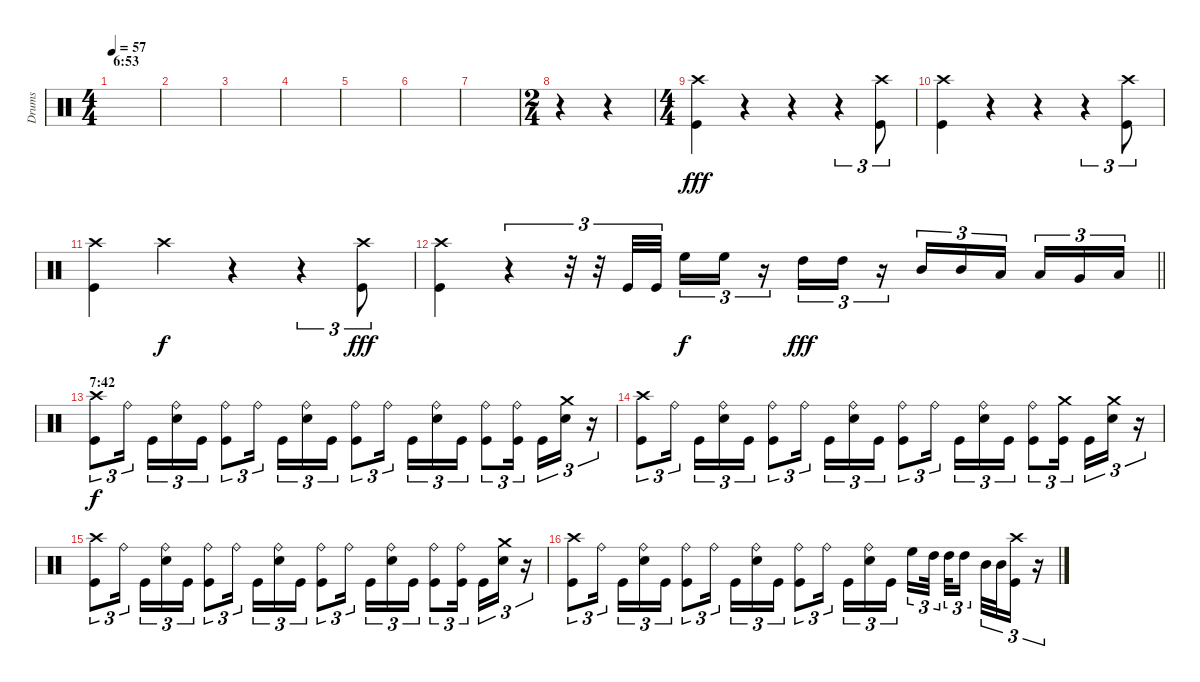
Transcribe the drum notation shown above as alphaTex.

\track ("Drums" "Drums") {instrument percussion}
\staff {score}
\articulation defaults
\ts (4 4)
\section ("" "6:53")
\tempo 57
\clef neutral
\ks c
|
|
|
|
|
|
|
\ts (2 4)
r.4 r.4 |
\ts (4 4)
("Crash high (hit)" "Kick (hit)").4{dy fff} r.4 r.4 r.4{tu (3 2)} ("Crash high (hit)" "Kick (hit)").8{tu (3 2)} |
("Crash high (hit)" "Kick (hit)").4 r.4 r.4 r.4{tu (3 2)} ("Crash high (hit)" "Kick (hit)").8{tu (3 2)} |
("Crash high (hit)" "Kick (hit)").4 "Crash high (hit)".4{dy f} r.4 r.4{tu (3 2)} ("Crash high (hit)" "Kick (hit)").8{tu (3 2) dy fff} |
\barLineRight lightlight
("Crash high (hit)" "Kick (hit)").4 r.4{tu (3 2)} r.32{tu (3 2)} r.32{tu (3 2)} "Kick (hit)".32{tu (3 2)} "Kick (hit)".32{tu (3 2)} "High Floor Tom (hit)".16{tu (3 2) dy f} "High Floor Tom (hit)".16{tu (3 2)} r.16{tu (3 2)} "High Tom (hit)".16{tu (3 2) dy fff} "High Tom (hit)".16{tu (3 2)} r.16{tu (3 2)} "Mid Tom (hit)".16{tu (3 2)} "Mid Tom (hit)".16{tu (3 2)} "Low Tom (hit)".16{tu (3 2) beam splitsecondary} "Low Tom (hit)".16{tu (3 2)} "Very Low Tom (hit)".16{tu (3 2)} "Low Floor Tom (hit)".16{tu (3 2)} |
\section ("" "7:42")
("Kick (hit)" "Crash high (hit)").8{tu (3 2) dy f} "Ride (bell)".16{tu (3 2) beam splitsecondary} "Kick (hit)".16{tu (3 2)} ("Snare (hit) 2" "Ride (bell)").16{tu (3 2)} "Kick (hit)".16{tu (3 2)} ("Kick (hit)" "Ride (bell)").8{tu (3 2)} "Ride (bell)".16{tu (3 2) beam splitsecondary} "Kick (hit)".16{tu (3 2)} ("Snare (hit) 2" "Ride (bell)").16{tu (3 2)} "Kick (hit)".16{tu (3 2)} ("Kick (hit)" "Ride (bell)").8{tu (3 2)} "Ride (bell)".16{tu (3 2) beam splitsecondary} "Kick (hit)".16{tu (3 2)} ("Snare (hit) 2" "Ride (bell)").16{tu (3 2)} "Kick (hit)".16{tu (3 2)} ("Kick (hit)" "Ride (bell)").8{tu (3 2)} ("Ride (bell)" "Kick (hit)").16{tu (3 2) beam splitsecondary} "Kick (hit)".16{tu (3 2)} ("Snare (hit) 2" "Crash medium (hit)").16{tu (3 2)} r.16{tu (3 2)} |
("Kick (hit)" "Crash high (hit)").8{tu (3 2)} "Ride (bell)".16{tu (3 2) beam splitsecondary} "Kick (hit)".16{tu (3 2)} ("Snare (hit) 2" "Ride (bell)").16{tu (3 2)} "Kick (hit)".16{tu (3 2)} ("Kick (hit)" "Ride (bell)").8{tu (3 2)} "Ride (bell)".16{tu (3 2) beam splitsecondary} "Kick (hit)".16{tu (3 2)} ("Snare (hit) 2" "Ride (bell)").16{tu (3 2)} "Kick (hit)".16{tu (3 2)} ("Kick (hit)" "Ride (bell)").8{tu (3 2)} "Ride (bell)".16{tu (3 2) beam splitsecondary} "Kick (hit)".16{tu (3 2)} ("Snare (hit) 2" "Ride (bell)").16{tu (3 2)} "Kick (hit)".16{tu (3 2)} ("Kick (hit)" "Ride (bell)").8{tu (3 2)} ("Crash medium (hit)" "Kick (hit)").16{tu (3 2) beam splitsecondary} "Kick (hit)".16{tu (3 2)} ("Snare (hit) 2" "Crash medium (hit)").16{tu (3 2)} r.16{tu (3 2)} |
("Kick (hit)" "Crash high (hit)").8{tu (3 2)} "Ride (bell)".16{tu (3 2) beam splitsecondary} "Kick (hit)".16{tu (3 2)} ("Snare (hit) 2" "Ride (bell)").16{tu (3 2)} "Kick (hit)".16{tu (3 2)} ("Kick (hit)" "Ride (bell)").8{tu (3 2)} "Ride (bell)".16{tu (3 2) beam splitsecondary} "Kick (hit)".16{tu (3 2)} ("Snare (hit) 2" "Ride (bell)").16{tu (3 2)} "Kick (hit)".16{tu (3 2)} ("Kick (hit)" "Ride (bell)").8{tu (3 2)} "Ride (bell)".16{tu (3 2) beam splitsecondary} "Kick (hit)".16{tu (3 2)} ("Snare (hit) 2" "Ride (bell)").16{tu (3 2)} "Kick (hit)".16{tu (3 2)} ("Kick (hit)" "Ride (bell)").8{tu (3 2)} ("Ride (bell)" "Kick (hit)").16{tu (3 2) beam splitsecondary} "Kick (hit)".16{tu (3 2)} ("Snare (hit) 2" "Crash medium (hit)").16{tu (3 2)} r.16{tu (3 2)} |
("Kick (hit)" "Crash high (hit)").8{tu (3 2)} "Ride (bell)".16{tu (3 2) beam splitsecondary} "Kick (hit)".16{tu (3 2)} ("Snare (hit) 2" "Ride (bell)").16{tu (3 2)} "Kick (hit)".16{tu (3 2)} ("Kick (hit)" "Ride (bell)").8{tu (3 2)} "Ride (bell)".16{tu (3 2) beam splitsecondary} "Kick (hit)".16{tu (3 2)} ("Snare (hit) 2" "Ride (bell)").16{tu (3 2)} "Kick (hit)".16{tu (3 2)} ("Kick (hit)" "Ride (bell)").8{tu (3 2)} "Ride (bell)".16{tu (3 2) beam splitsecondary} "Kick (hit)".16{tu (3 2)} ("Snare (hit) 2" "Ride (bell)").16{tu (3 2)} "Kick (hit)".16{tu (3 2)} "High Floor Tom (hit)".16{tu (3 2)} "High Tom (hit)".32{tu (3 2) beam splitsecondary} "High Tom (hit)".32{tu (3 2)} "High Tom (hit)".16{tu (3 2) beam splitsecondary} "Mid Tom (hit)".32{tu (3 2)} "Mid Tom (hit)".32{tu (3 2)} ("Crash high (hit)" "Kick (hit)").16{tu (3 2)} r.16{tu (3 2)}
